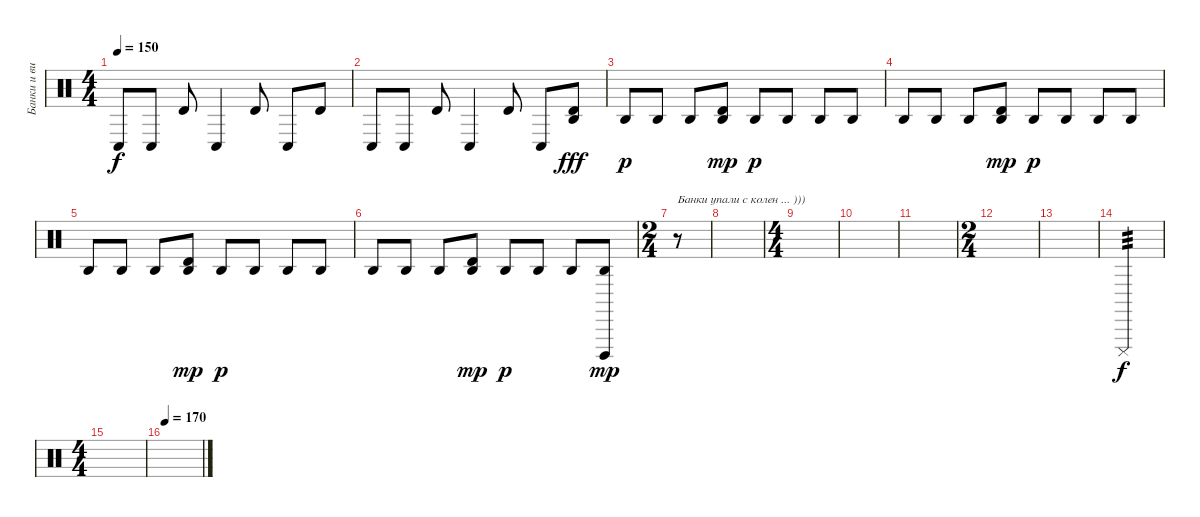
\track ("Банки и вилка на коленках" "Банки и ви") {instrument percussion}
\staff {score}
\articulation defaults
\ts (4 4)
\tempo 150
\clef neutral
\ks aminor "Conga low (hit)".8{dy f} "Conga low (hit)".8 "Timbale high (hit)".8 "Conga low (hit)".4 "Timbale high (hit)".8 "Conga low (hit)".8 "Timbale high (hit)".8
|
"Conga low (hit)".8 "Conga low (hit)".8 "Timbale high (hit)".8 "Conga low (hit)".4 "Timbale high (hit)".8 "Conga low (hit)".8 ("Timbale high (hit)" "Agogo high (hit)").8{dy fff} |
"Agogo high (hit)".8{dy p} "Agogo high (hit)".8 "Agogo high (hit)".8 ("Agogo high (hit)" "Timbale high (hit)").8{dy mp} "Agogo high (hit)".8{dy p} "Agogo high (hit)".8 "Agogo high (hit)".8 "Agogo high (hit)".8 |
"Agogo high (hit)".8 "Agogo high (hit)".8 "Agogo high (hit)".8 ("Agogo high (hit)" "Timbale high (hit)").8{dy mp} "Agogo high (hit)".8{dy p} "Agogo high (hit)".8 "Agogo high (hit)".8 "Agogo high (hit)".8 |
"Agogo high (hit)".8 "Agogo high (hit)".8 "Agogo high (hit)".8 ("Agogo high (hit)" "Timbale high (hit)").8{dy mp} "Agogo high (hit)".8{dy p} "Agogo high (hit)".8 "Agogo high (hit)".8 "Agogo high (hit)".8 |
"Agogo high (hit)".8 "Agogo high (hit)".8 "Agogo high (hit)".8 ("Agogo high (hit)" "Timbale high (hit)").8{dy mp} "Agogo high (hit)".8{dy p} "Agogo high (hit)".8 "Agogo high (hit)".8 ("Agogo high (hit)" "Cuica (open)").8{dy mp} |
\ts (2 4)
r.8{txt "Банки упали с колен ... )))"} |
|
\ts (4 4)
|
|
|
\ts (2 4)
|
|
"Cuica (mute)".4{tp 3 dy f} |
\ts (4 4)
|
\tempo 170
